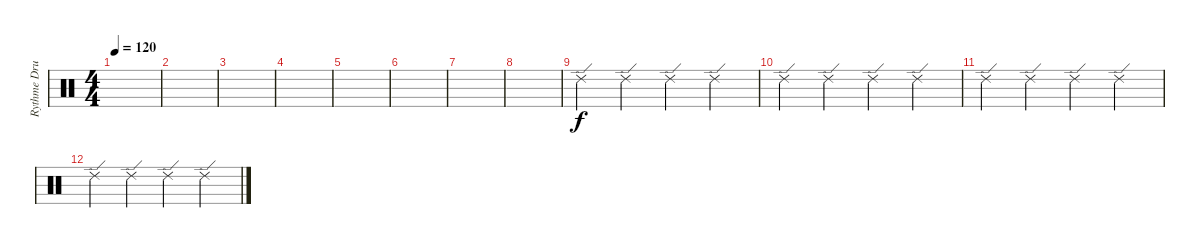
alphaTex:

\track ("Rythme Drum" "Rythme Dru") {instrument percussion}
\staff {score}
\articulation defaults
\ts (4 4)
\tempo 120
\clef neutral
\ks c
|
|
|
|
|
|
|
|
"Ride (edge) 2".4 "Ride (edge) 2".4 "Ride (edge) 2".4 "Ride (edge) 2".4 |
"Ride (edge) 2".4 "Ride (edge) 2".4 "Ride (edge) 2".4 "Ride (edge) 2".4 |
"Ride (edge) 2".4 "Ride (edge) 2".4 "Ride (edge) 2".4 "Ride (edge) 2".4 |
"Ride (edge) 2".4 "Ride (edge) 2".4 "Ride (edge) 2".4 "Ride (edge) 2".4
